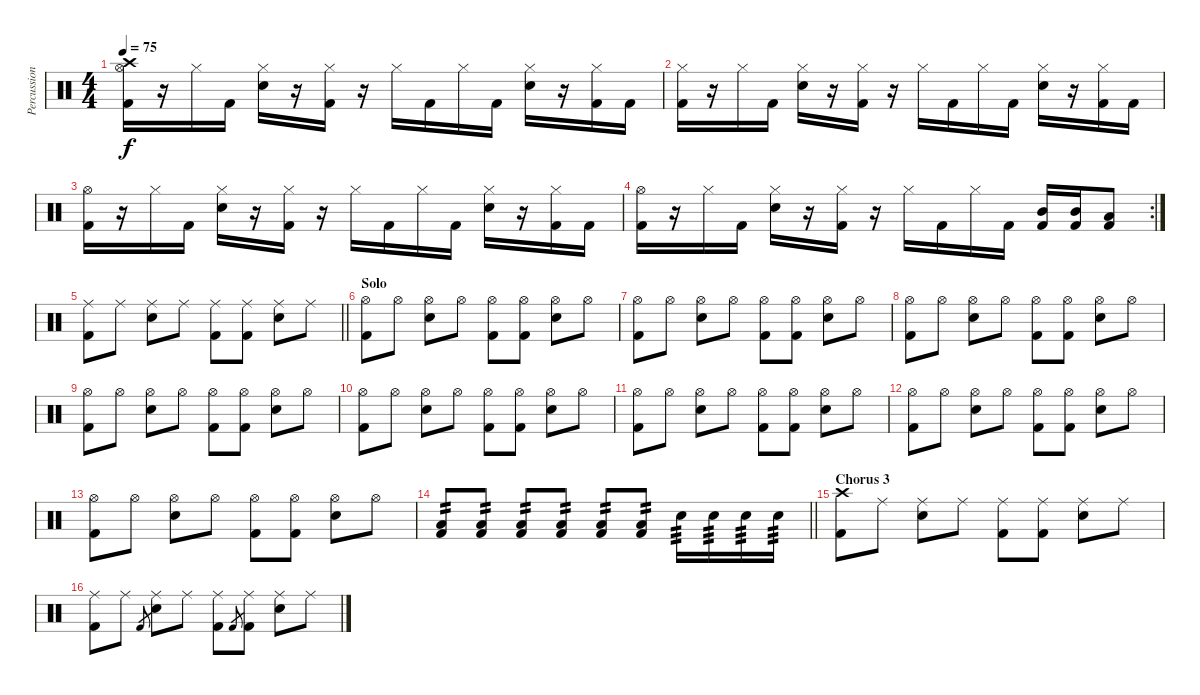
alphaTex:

\track ("Percussions" "Percussion") {instrument percussion}
\staff {score}
\articulation defaults
\ts (4 4)
\tempo 75
\clef neutral
\ks c
("Crash high (hit)" "Hi-Hat (open)" "Kick (hit) 2").16{dy f} r.16 "Hi-Hat (closed)".16 "Kick (hit) 2".16 ("Hi-Hat (closed)" "Snare (hit) 2").16 r.16 ("Hi-Hat (closed)" "Kick (hit) 2").16 r.16 "Hi-Hat (closed)".16 "Kick (hit) 2".16 "Hi-Hat (closed)".16 "Kick (hit) 2".16 ("Hi-Hat (closed)" "Snare (hit) 2").16 r.16 ("Hi-Hat (closed)" "Kick (hit) 2").16 "Kick (hit) 2".16 |
("Hi-Hat (closed)" "Kick (hit) 2").16 r.16 "Hi-Hat (closed)".16 "Kick (hit) 2".16 ("Hi-Hat (closed)" "Snare (hit) 2").16 r.16 ("Hi-Hat (closed)" "Kick (hit) 2").16 r.16 "Hi-Hat (closed)".16 "Kick (hit) 2".16 "Hi-Hat (closed)".16 "Kick (hit) 2".16 ("Hi-Hat (closed)" "Snare (hit) 2").16 r.16 ("Hi-Hat (closed)" "Kick (hit) 2").16 "Kick (hit) 2".16 |
("Hi-Hat (open)" "Kick (hit) 2").16 r.16 "Hi-Hat (closed)".16 "Kick (hit) 2".16 ("Hi-Hat (closed)" "Snare (hit) 2").16 r.16 ("Hi-Hat (closed)" "Kick (hit) 2").16 r.16 "Hi-Hat (closed)".16 "Kick (hit) 2".16 "Hi-Hat (closed)".16 "Kick (hit) 2".16 ("Hi-Hat (closed)" "Snare (hit) 2").16 r.16 ("Hi-Hat (closed)" "Kick (hit) 2").16 "Kick (hit) 2".16 |
\rc 2
("Hi-Hat (open)" "Kick (hit) 2").16 r.16 "Hi-Hat (closed)".16 "Kick (hit) 2".16 ("Hi-Hat (closed)" "Snare (hit) 2").16 r.16 ("Hi-Hat (closed)" "Kick (hit) 2").16 r.16 "Hi-Hat (closed)".16 "Kick (hit) 2".16 "Hi-Hat (closed)".16 "Kick (hit) 2".16 ("Mid Tom (hit)" "Kick (hit) 2").16 ("Mid Tom (hit)" "Kick (hit) 2").16 ("Low Tom (hit)" "Kick (hit) 2").8 |
\barLineRight lightlight
("Ride (middle)" "Kick (hit) 2").8 "Ride (middle)".8 ("Ride (middle)" "Snare (hit) 2").8 "Ride (middle)".8 ("Ride (middle)" "Kick (hit) 2").8 ("Ride (middle)" "Kick (hit) 2").8 ("Ride (middle)" "Snare (hit) 2").8 "Ride (middle)".8 |
\section ("" "Solo")
("Hi-Hat (open)" "Kick (hit) 2").8 "Hi-Hat (open)".8 ("Hi-Hat (open)" "Snare (hit) 2").8 "Hi-Hat (open)".8 ("Hi-Hat (open)" "Kick (hit) 2").8 ("Hi-Hat (open)" "Kick (hit) 2").8 ("Hi-Hat (open)" "Snare (hit) 2").8 "Hi-Hat (open)".8 |
("Hi-Hat (open)" "Kick (hit) 2").8 "Hi-Hat (open)".8 ("Hi-Hat (open)" "Snare (hit) 2").8 "Hi-Hat (open)".8 ("Hi-Hat (open)" "Kick (hit) 2").8 ("Hi-Hat (open)" "Kick (hit) 2").8 ("Hi-Hat (open)" "Snare (hit) 2").8 "Hi-Hat (open)".8 |
("Hi-Hat (open)" "Kick (hit) 2").8 "Hi-Hat (open)".8 ("Hi-Hat (open)" "Snare (hit) 2").8 "Hi-Hat (open)".8 ("Hi-Hat (open)" "Kick (hit) 2").8 ("Hi-Hat (open)" "Kick (hit) 2").8 ("Hi-Hat (open)" "Snare (hit) 2").8 "Hi-Hat (open)".8 |
("Hi-Hat (open)" "Kick (hit) 2").8 "Hi-Hat (open)".8 ("Hi-Hat (open)" "Snare (hit) 2").8 "Hi-Hat (open)".8 ("Hi-Hat (open)" "Kick (hit) 2").8 ("Hi-Hat (open)" "Kick (hit) 2").8 ("Hi-Hat (open)" "Snare (hit) 2").8 "Hi-Hat (open)".8 |
("Hi-Hat (open)" "Kick (hit) 2").8 "Hi-Hat (open)".8 ("Hi-Hat (open)" "Snare (hit) 2").8 "Hi-Hat (open)".8 ("Hi-Hat (open)" "Kick (hit) 2").8 ("Hi-Hat (open)" "Kick (hit) 2").8 ("Hi-Hat (open)" "Snare (hit) 2").8 "Hi-Hat (open)".8 |
("Hi-Hat (open)" "Kick (hit) 2").8 "Hi-Hat (open)".8 ("Hi-Hat (open)" "Snare (hit) 2").8 "Hi-Hat (open)".8 ("Hi-Hat (open)" "Kick (hit) 2").8 ("Hi-Hat (open)" "Kick (hit) 2").8 ("Hi-Hat (open)" "Snare (hit) 2").8 "Hi-Hat (open)".8 |
("Hi-Hat (open)" "Kick (hit) 2").8 "Hi-Hat (open)".8 ("Hi-Hat (open)" "Snare (hit) 2").8 "Hi-Hat (open)".8 ("Hi-Hat (open)" "Kick (hit) 2").8 ("Hi-Hat (open)" "Kick (hit) 2").8 ("Hi-Hat (open)" "Snare (hit) 2").8 "Hi-Hat (open)".8 |
("Hi-Hat (open)" "Kick (hit) 2").8 "Hi-Hat (open)".8 ("Hi-Hat (open)" "Snare (hit) 2").8 "Hi-Hat (open)".8 ("Hi-Hat (open)" "Kick (hit) 2").8 ("Hi-Hat (open)" "Kick (hit) 2").8 ("Hi-Hat (open)" "Snare (hit) 2").8 "Hi-Hat (open)".8 |
\barLineRight lightlight
("Low Tom (hit)" "Kick (hit) 2").8{tp 2} ("Low Tom (hit)" "Kick (hit) 2").8{tp 2} ("Low Tom (hit)" "Kick (hit) 2").8{tp 2} ("Low Tom (hit)" "Kick (hit) 2").8{tp 2} ("Low Tom (hit)" "Kick (hit) 2").8{tp 2} ("Low Tom (hit)" "Kick (hit) 2").8{tp 2} "Electric Snare (hit)".16{tp 3} "Snare (hit) 2".16{tp 3} "Snare (hit) 2".16{tp 3} "Electric Snare (hit)".16{tp 3} |
\section ("" "Chorus 3")
("Crash high (hit)" "Kick (hit) 2").8 "Ride (middle)".8 ("Ride (middle)" "Snare (hit) 2").8 "Ride (middle)".8 ("Ride (middle)" "Kick (hit) 2").8 ("Ride (middle)" "Kick (hit) 2").8 ("Ride (middle)" "Snare (hit) 2").8 "Ride (middle)".8 |
("Ride (middle)" "Kick (hit) 2").8 "Ride (middle)".8 "Kick (hit) 2".8{gr} ("Ride (middle)" "Snare (hit) 2").8 "Ride (middle)".8 ("Ride (middle)" "Kick (hit) 2").8 "Kick (hit) 2".8{gr} ("Ride (middle)" "Kick (hit) 2").8 ("Ride (middle)" "Snare (hit) 2").8 "Ride (middle)".8
